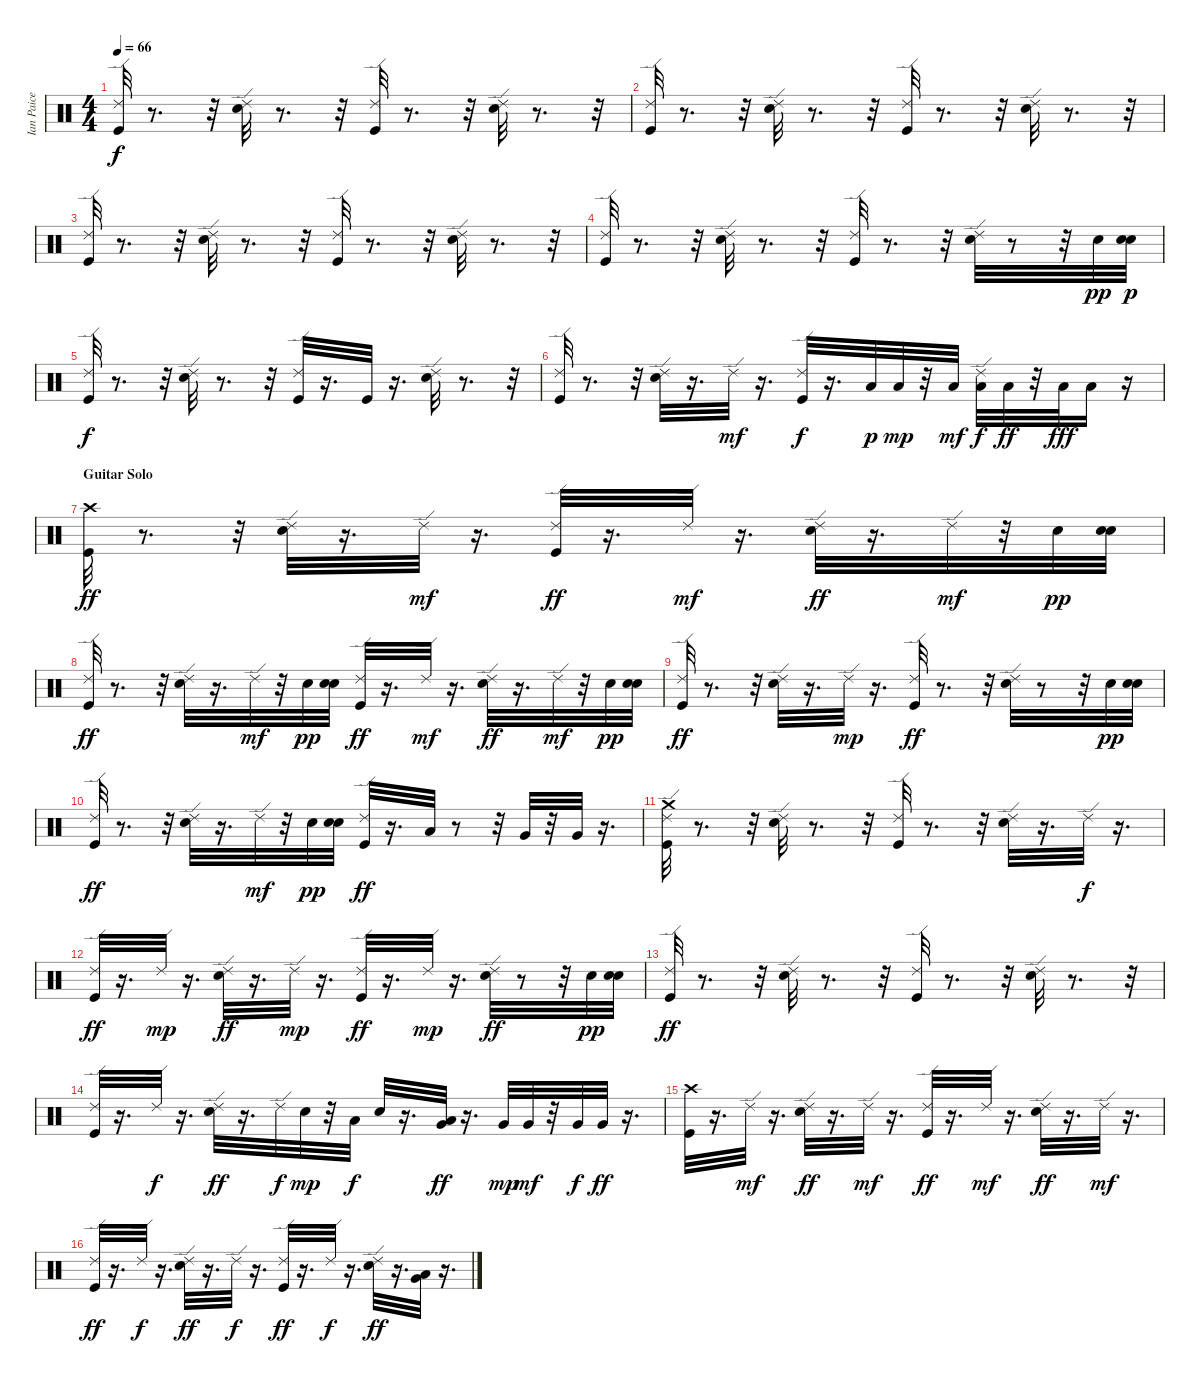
\track ("Ian Paice" "Ian Paice") {instrument percussion}
\staff {score}
\articulation defaults
\ts (4 4)
\tempo 66
\clef neutral
\ks c
("Kick (hit)" "Ride (edge) 2").32{dy f} r.8{d} r.32 ("Snare (hit) 2" "Ride (edge) 2").32 r.8{d} r.32 ("Kick (hit)" "Ride (edge) 2").32 r.8{d} r.32 ("Snare (hit) 2" "Ride (edge) 2").32 r.8{d} r.32 |
("Kick (hit)" "Ride (edge) 2").32 r.8{d} r.32 ("Snare (hit) 2" "Ride (edge) 2").32 r.8{d} r.32 ("Kick (hit)" "Ride (edge) 2").32 r.8{d} r.32 ("Snare (hit) 2" "Ride (edge) 2").32 r.8{d} r.32 |
("Kick (hit)" "Ride (edge) 2").32 r.8{d} r.32 ("Snare (hit) 2" "Ride (edge) 2").32 r.8{d} r.32 ("Kick (hit)" "Ride (edge) 2").32 r.8{d} r.32 ("Snare (hit) 2" "Ride (edge) 2").32 r.8{d} r.32 |
("Kick (hit)" "Ride (edge) 2").32 r.8{d} r.32 ("Snare (hit) 2" "Ride (edge) 2").32 r.8{d} r.32 ("Kick (hit)" "Ride (edge) 2").32 r.8{d} r.32 ("Snare (hit) 2" "Ride (edge) 2").32 r.8 r.32 "Snare (hit) 2".32{dy pp} ("Snare (hit) 2" "Snare (hit) 2").32{dy p} |
("Kick (hit)" "Ride (edge) 2").32{dy f} r.8{d} r.32 ("Snare (hit) 2" "Ride (edge) 2").32 r.8{d} r.32 ("Kick (hit)" "Ride (edge) 2").32 r.16{d} "Kick (hit)".32 r.16{d} ("Snare (hit) 2" "Ride (edge) 2").32 r.8{d} r.32 |
("Kick (hit)" "Ride (edge) 2").32 r.8{d} r.32 ("Snare (hit) 2" "Ride (edge) 2").32 r.16{d} "Ride (edge) 2".32{dy mf} r.16{d} ("Kick (hit)" "Ride (edge) 2").32{dy f} r.16{d} "Low Tom (hit)".32{dy p} "Low Tom (hit)".32{dy mp} r.32 "Low Tom (hit)".32{dy mf} ("Ride (edge) 2" "Low Tom (hit)").32{dy f} "Low Tom (hit)".32{dy ff} r.32 "Low Tom (hit)".32{dy fff} "Low Tom (hit)".16 r.16 |
\section ("" "Guitar Solo")
("Kick (hit)" "Crash high (hit)").32{dy ff} r.8{d} r.32 ("Snare (hit) 2" "Ride (edge) 2").32 r.16{d} "Ride (edge) 2".32{dy mf} r.16{d} ("Kick (hit)" "Ride (edge) 2").32{dy ff} r.16{d} "Ride (edge) 2".32{dy mf} r.16{d} ("Snare (hit) 2" "Ride (edge) 2").32{dy ff} r.16{d} "Ride (edge) 2".32{dy mf} r.32 "Snare (hit) 2".32{dy pp} ("Snare (hit) 2" "Snare (hit) 2").32 |
("Kick (hit)" "Ride (edge) 2").32{dy ff} r.8{d} r.32 ("Ride (edge) 2" "Snare (hit) 2").32 r.16{d} "Ride (edge) 2".32{dy mf} r.32 "Snare (hit) 2".32{dy pp} ("Snare (hit) 2" "Snare (hit) 2").32 ("Ride (edge) 2" "Kick (hit)").32{dy ff} r.16{d} "Ride (edge) 2".32{dy mf} r.16{d} ("Ride (edge) 2" "Snare (hit) 2").32{dy ff} r.16{d} "Ride (edge) 2".32{dy mf} r.32 "Snare (hit) 2".32{dy pp} ("Snare (hit) 2" "Snare (hit) 2").32 |
("Ride (edge) 2" "Kick (hit)").32{dy ff} r.8{d} r.32 ("Ride (edge) 2" "Snare (hit) 2").32 r.16{d} "Ride (edge) 2".32{dy mp} r.16{d} ("Kick (hit)" "Ride (edge) 2").32{dy ff} r.8{d} r.32 ("Ride (edge) 2" "Snare (hit) 2").32 r.8 r.32 "Snare (hit) 2".32{dy pp} ("Snare (hit) 2" "Snare (hit) 2").32 |
("Ride (edge) 2" "Kick (hit)").32{dy ff} r.8{d} r.32 ("Snare (hit) 2" "Ride (edge) 2").32 r.16{d} "Ride (edge) 2".32{dy mf} r.32 "Snare (hit) 2".32{dy pp} ("Snare (hit) 2" "Snare (hit) 2").32 ("Kick (hit)" "Ride (edge) 2").32{dy ff} r.16{d} "Low Tom (hit)".32 r.8 r.32 "Very Low Tom (hit)".32 r.32 "Very Low Tom (hit)".32 r.16{d} |
("Ride (edge) 2" "Crash medium (hit)" "Kick (hit)").32 r.8{d} r.32 ("Snare (hit) 2" "Ride (edge) 2").32 r.8{d} r.32 ("Kick (hit)" "Ride (edge) 2").32 r.8{d} r.32 ("Snare (hit) 2" "Ride (edge) 2").32 r.16{d} "Ride (edge) 2".32{dy f} r.16{d} |
("Kick (hit)" "Ride (edge) 2").32{dy ff} r.16{d} "Ride (edge) 2".32{dy mp} r.16{d} ("Snare (hit) 2" "Ride (edge) 2").32{dy ff} r.16{d} "Ride (edge) 2".32{dy mp} r.16{d} ("Kick (hit)" "Ride (edge) 2").32{dy ff} r.16{d} "Ride (edge) 2".32{dy mp} r.16{d} ("Snare (hit) 2" "Ride (edge) 2").32{dy ff} r.8 r.32 "Snare (hit) 2".32{dy pp} ("Snare (hit) 2" "Snare (hit) 2").32 |
("Ride (edge) 2" "Kick (hit)").32{dy ff} r.8{d} r.32 ("Ride (edge) 2" "Snare (hit) 2").32 r.8{d} r.32 ("Ride (edge) 2" "Kick (hit)").32 r.8{d} r.32 ("Snare (hit) 2" "Ride (edge) 2").32 r.8{d} r.32 |
("Ride (edge) 2" "Kick (hit)").32 r.16{d} "Ride (edge) 2".32{dy f} r.16{d} ("Ride (edge) 2" "Snare (hit) 2").32{dy ff} r.16{d} "Ride (edge) 2".32{dy f} "Snare (hit) 2".32{dy mp} r.32 "Low Tom (hit)".32{dy f} "Snare (hit) 2".32 r.16{d} ("Low Tom (hit)" "Very Low Tom (hit)").32{dy ff} r.16{d} "Very Low Tom (hit)".32{dy mp} "Very Low Tom (hit)".32{dy mf} r.32 "Very Low Tom (hit)".32{dy f} "Very Low Tom (hit)".32{dy ff} r.16{d} |
("Crash high (hit)" "Kick (hit)").32 r.16{d} "Ride (edge) 2".32{dy mf} r.16{d} ("Snare (hit) 2" "Ride (edge) 2").32{dy ff} r.16{d} "Ride (edge) 2".32{dy mf} r.16{d} ("Kick (hit)" "Ride (edge) 2").32{dy ff} r.16{d} "Ride (edge) 2".32{dy mf} r.16{d} ("Snare (hit) 2" "Ride (edge) 2").32{dy ff} r.16{d} "Ride (edge) 2".32{dy mf} r.16{d} |
("Kick (hit)" "Ride (edge) 2").32{dy ff} r.16{d} "Ride (edge) 2".32{dy f} r.16{d} ("Snare (hit) 2" "Ride (edge) 2").32{dy ff} r.16{d} "Ride (edge) 2".32{dy f} r.16{d} ("Kick (hit)" "Ride (edge) 2").32{dy ff} r.16{d} "Ride (edge) 2".32{dy f} r.16{d} ("Snare (hit) 2" "Ride (edge) 2").32{dy ff} r.16{d} ("Very Low Tom (hit)" "Low Floor Tom (hit)").32 r.16{d}
